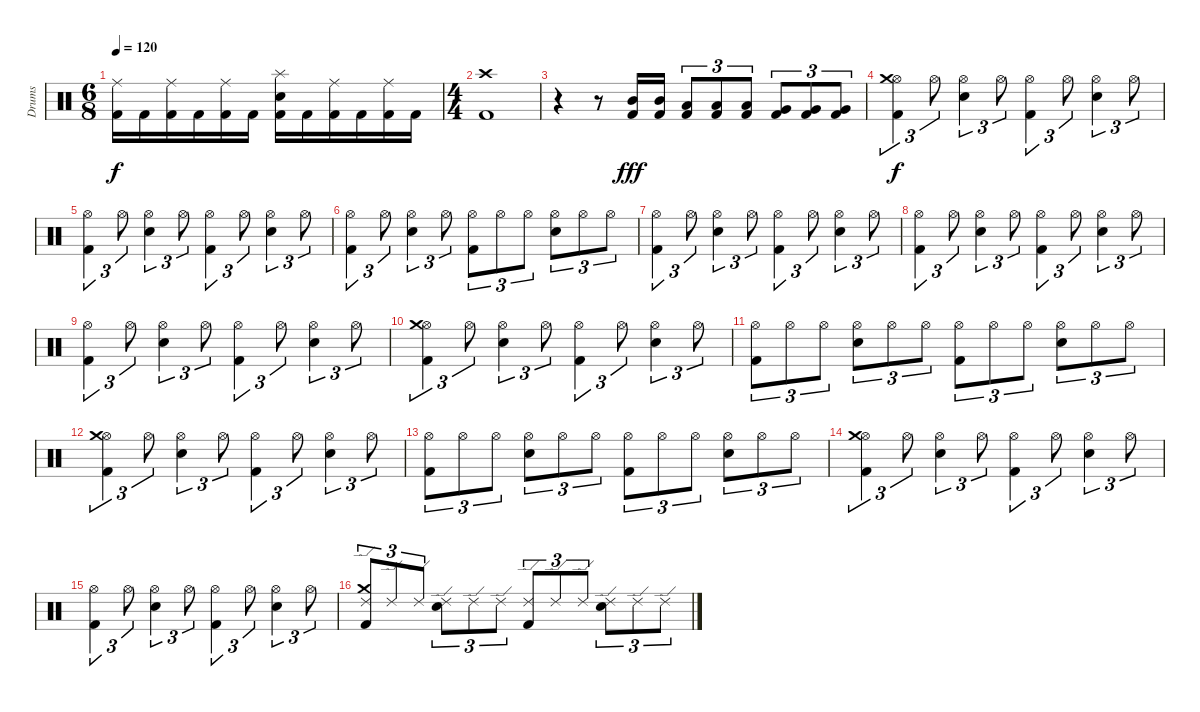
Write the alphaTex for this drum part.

\track ("Drums" "Drums") {instrument percussion}
\staff {score}
\articulation defaults
\ts (6 8)
\tempo 120
\clef neutral
\ks c
("Kick (hit) 2" "Ride (middle)").16{dy f} "Kick (hit) 2".16 ("Kick (hit) 2" "Ride (middle)").16 "Kick (hit) 2".16 ("Kick (hit) 2" "Ride (middle)").16 "Kick (hit) 2".16 ("Kick (hit) 2" "Snare (hit) 2" "Splash (hit)").16 "Kick (hit) 2".16 ("Kick (hit) 2" "Ride (middle)").16 "Kick (hit) 2".16 ("Kick (hit) 2" "Ride (middle)").16 "Kick (hit) 2".16 |
\ts (4 4)
("Kick (hit) 2" "Crash high (hit)").1 |
r.4 r.8 ("Kick (hit) 2" "Mid Tom (hit)").16{dy fff} ("Kick (hit) 2" "Mid Tom (hit)").16 ("Kick (hit) 2" "Low Tom (hit)").8{tu (3 2)} ("Kick (hit) 2" "Low Tom (hit)").8{tu (3 2)} ("Kick (hit) 2" "Low Tom (hit)").8{tu (3 2)} ("Kick (hit) 2" "Very Low Tom (hit)").8{tu (3 2)} ("Kick (hit) 2" "Very Low Tom (hit)").8{tu (3 2)} ("Kick (hit) 2" "Very Low Tom (hit)").8{tu (3 2)} |
("Kick (hit) 2" "Hi-Hat (open)" "Crash medium (hit)").4{tu (3 2) dy f} "Hi-Hat (open)".8{tu (3 2)} ("Snare (hit) 2" "Hi-Hat (open)").4{tu (3 2)} "Hi-Hat (open)".8{tu (3 2)} ("Kick (hit) 2" "Hi-Hat (open)").4{tu (3 2)} "Hi-Hat (open)".8{tu (3 2)} ("Snare (hit) 2" "Hi-Hat (open)").4{tu (3 2)} "Hi-Hat (open)".8{tu (3 2)} |
("Kick (hit) 2" "Hi-Hat (open)").4{tu (3 2)} "Hi-Hat (open)".8{tu (3 2)} ("Snare (hit) 2" "Hi-Hat (open)").4{tu (3 2)} "Hi-Hat (open)".8{tu (3 2)} ("Kick (hit) 2" "Hi-Hat (open)").4{tu (3 2)} "Hi-Hat (open)".8{tu (3 2)} ("Snare (hit) 2" "Hi-Hat (open)").4{tu (3 2)} "Hi-Hat (open)".8{tu (3 2)} |
("Kick (hit) 2" "Hi-Hat (open)").4{tu (3 2)} "Hi-Hat (open)".8{tu (3 2)} ("Snare (hit) 2" "Hi-Hat (open)").4{tu (3 2)} "Hi-Hat (open)".8{tu (3 2)} ("Kick (hit) 2" "Hi-Hat (open)").8{tu (3 2)} "Hi-Hat (open)".8{tu (3 2)} "Hi-Hat (open)".8{tu (3 2)} ("Snare (hit) 2" "Hi-Hat (open)").8{tu (3 2)} "Hi-Hat (open)".8{tu (3 2)} "Hi-Hat (open)".8{tu (3 2)} |
("Kick (hit) 2" "Hi-Hat (open)").4{tu (3 2)} "Hi-Hat (open)".8{tu (3 2)} ("Snare (hit) 2" "Hi-Hat (open)").4{tu (3 2)} "Hi-Hat (open)".8{tu (3 2)} ("Kick (hit) 2" "Hi-Hat (open)").4{tu (3 2)} "Hi-Hat (open)".8{tu (3 2)} ("Snare (hit) 2" "Hi-Hat (open)").4{tu (3 2)} "Hi-Hat (open)".8{tu (3 2)} |
("Kick (hit) 2" "Hi-Hat (open)").4{tu (3 2)} "Hi-Hat (open)".8{tu (3 2)} ("Snare (hit) 2" "Hi-Hat (open)").4{tu (3 2)} "Hi-Hat (open)".8{tu (3 2)} ("Kick (hit) 2" "Hi-Hat (open)").4{tu (3 2)} "Hi-Hat (open)".8{tu (3 2)} ("Snare (hit) 2" "Hi-Hat (open)").4{tu (3 2)} "Hi-Hat (open)".8{tu (3 2)} |
("Kick (hit) 2" "Hi-Hat (open)").4{tu (3 2)} "Hi-Hat (open)".8{tu (3 2)} ("Snare (hit) 2" "Hi-Hat (open)").4{tu (3 2)} "Hi-Hat (open)".8{tu (3 2)} ("Kick (hit) 2" "Hi-Hat (open)").4{tu (3 2)} "Hi-Hat (open)".8{tu (3 2)} ("Snare (hit) 2" "Hi-Hat (open)").4{tu (3 2)} "Hi-Hat (open)".8{tu (3 2)} |
("Kick (hit) 2" "Hi-Hat (open)" "Crash medium (hit)").4{tu (3 2)} "Hi-Hat (open)".8{tu (3 2)} ("Snare (hit) 2" "Hi-Hat (open)").4{tu (3 2)} "Hi-Hat (open)".8{tu (3 2)} ("Kick (hit) 2" "Hi-Hat (open)").4{tu (3 2)} "Hi-Hat (open)".8{tu (3 2)} ("Snare (hit) 2" "Hi-Hat (open)").4{tu (3 2)} "Hi-Hat (open)".8{tu (3 2)} |
("Kick (hit) 2" "Hi-Hat (open)").8{tu (3 2)} "Hi-Hat (open)".8{tu (3 2)} "Hi-Hat (open)".8{tu (3 2)} ("Snare (hit) 2" "Hi-Hat (open)").8{tu (3 2)} "Hi-Hat (open)".8{tu (3 2)} "Hi-Hat (open)".8{tu (3 2)} ("Kick (hit) 2" "Hi-Hat (open)").8{tu (3 2)} "Hi-Hat (open)".8{tu (3 2)} "Hi-Hat (open)".8{tu (3 2)} ("Snare (hit) 2" "Hi-Hat (open)").8{tu (3 2)} "Hi-Hat (open)".8{tu (3 2)} "Hi-Hat (open)".8{tu (3 2)} |
("Kick (hit) 2" "Hi-Hat (open)" "Crash medium (hit)").4{tu (3 2)} "Hi-Hat (open)".8{tu (3 2)} ("Snare (hit) 2" "Hi-Hat (open)").4{tu (3 2)} "Hi-Hat (open)".8{tu (3 2)} ("Kick (hit) 2" "Hi-Hat (open)").4{tu (3 2)} "Hi-Hat (open)".8{tu (3 2)} ("Snare (hit) 2" "Hi-Hat (open)").4{tu (3 2)} "Hi-Hat (open)".8{tu (3 2)} |
("Kick (hit) 2" "Hi-Hat (open)").8{tu (3 2)} "Hi-Hat (open)".8{tu (3 2)} "Hi-Hat (open)".8{tu (3 2)} ("Snare (hit) 2" "Hi-Hat (open)").8{tu (3 2)} "Hi-Hat (open)".8{tu (3 2)} "Hi-Hat (open)".8{tu (3 2)} ("Kick (hit) 2" "Hi-Hat (open)").8{tu (3 2)} "Hi-Hat (open)".8{tu (3 2)} "Hi-Hat (open)".8{tu (3 2)} ("Snare (hit) 2" "Hi-Hat (open)").8{tu (3 2)} "Hi-Hat (open)".8{tu (3 2)} "Hi-Hat (open)".8{tu (3 2)} |
("Kick (hit) 2" "Hi-Hat (open)" "Crash medium (hit)").4{tu (3 2)} "Hi-Hat (open)".8{tu (3 2)} ("Snare (hit) 2" "Hi-Hat (open)").4{tu (3 2)} "Hi-Hat (open)".8{tu (3 2)} ("Kick (hit) 2" "Hi-Hat (open)").4{tu (3 2)} "Hi-Hat (open)".8{tu (3 2)} ("Snare (hit) 2" "Hi-Hat (open)").4{tu (3 2)} "Hi-Hat (open)".8{tu (3 2)} |
("Kick (hit) 2" "Hi-Hat (open)").4{tu (3 2)} "Hi-Hat (open)".8{tu (3 2)} ("Snare (hit) 2" "Hi-Hat (open)").4{tu (3 2)} "Hi-Hat (open)".8{tu (3 2)} ("Kick (hit) 2" "Hi-Hat (open)").4{tu (3 2)} "Hi-Hat (open)".8{tu (3 2)} ("Snare (hit) 2" "Hi-Hat (open)").4{tu (3 2)} "Hi-Hat (open)".8{tu (3 2)} |
("Kick (hit) 2" "Ride (edge) 2" "Crash medium (hit)").8{tu (3 2)} "Ride (edge) 2".8{tu (3 2)} "Ride (edge) 2".8{tu (3 2)} ("Snare (hit) 2" "Ride (edge) 2").8{tu (3 2)} "Ride (edge) 2".8{tu (3 2)} "Ride (edge) 2".8{tu (3 2)} ("Kick (hit) 2" "Ride (edge) 2").8{tu (3 2)} "Ride (edge) 2".8{tu (3 2)} "Ride (edge) 2".8{tu (3 2)} ("Snare (hit) 2" "Ride (edge) 2").8{tu (3 2)} "Ride (edge) 2".8{tu (3 2)} "Ride (edge) 2".8{tu (3 2)}
